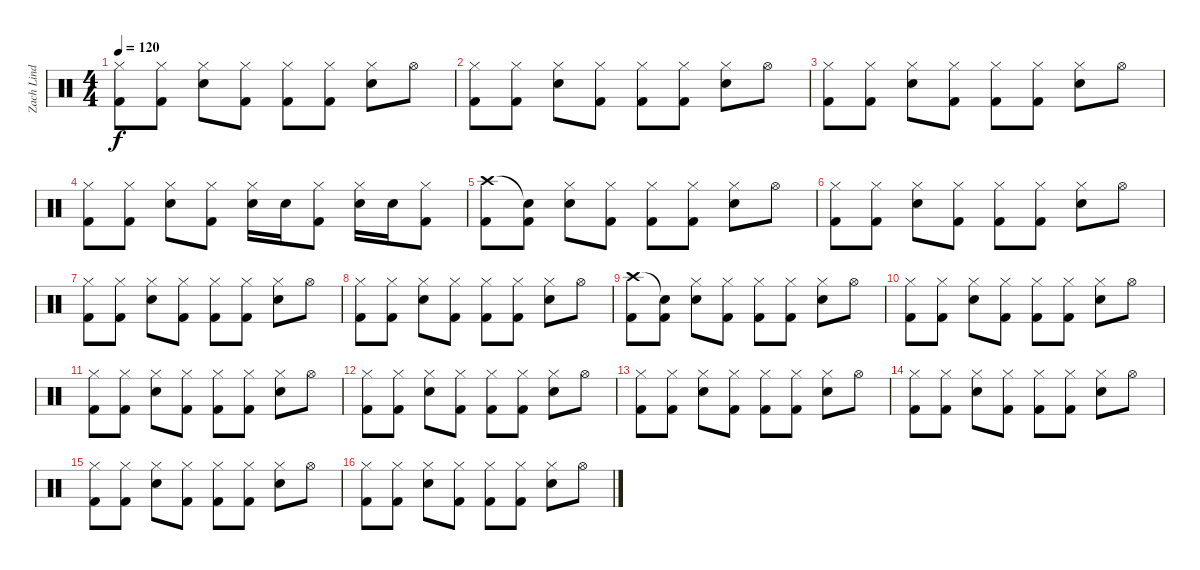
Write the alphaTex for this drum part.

\track ("Zach Lind (Drums)" "Zach Lind ") {instrument percussion}
\staff {score}
\articulation defaults
\ts (4 4)
\tempo 120
\clef neutral
\ks c
("Hi-Hat (closed)" "Kick (hit) 2").8{dy f} ("Hi-Hat (closed)" "Kick (hit) 2").8 ("Hi-Hat (closed)" "Electric Snare (hit)").8 ("Hi-Hat (closed)" "Kick (hit) 2").8 ("Hi-Hat (closed)" "Kick (hit) 2").8 ("Hi-Hat (closed)" "Kick (hit) 2").8 ("Hi-Hat (closed)" "Electric Snare (hit)").8 "Hi-Hat (open)".8 |
("Hi-Hat (closed)" "Kick (hit) 2").8 ("Hi-Hat (closed)" "Kick (hit) 2").8 ("Hi-Hat (closed)" "Electric Snare (hit)").8 ("Hi-Hat (closed)" "Kick (hit) 2").8 ("Hi-Hat (closed)" "Kick (hit) 2").8 ("Hi-Hat (closed)" "Kick (hit) 2").8 ("Hi-Hat (closed)" "Electric Snare (hit)").8 "Hi-Hat (open)".8 |
("Hi-Hat (closed)" "Kick (hit) 2").8 ("Hi-Hat (closed)" "Kick (hit) 2").8 ("Hi-Hat (closed)" "Electric Snare (hit)").8 ("Hi-Hat (closed)" "Kick (hit) 2").8 ("Hi-Hat (closed)" "Kick (hit) 2").8 ("Hi-Hat (closed)" "Kick (hit) 2").8 ("Hi-Hat (closed)" "Electric Snare (hit)").8 "Hi-Hat (open)".8 |
("Hi-Hat (closed)" "Kick (hit) 2").8 ("Hi-Hat (closed)" "Kick (hit) 2").8 ("Hi-Hat (closed)" "Electric Snare (hit)").8 ("Hi-Hat (closed)" "Kick (hit) 2").8 ("Hi-Hat (closed)" "Electric Snare (hit)").16 "Electric Snare (hit)".16 ("Hi-Hat (closed)" "Kick (hit) 2").8 ("Hi-Hat (closed)" "Electric Snare (hit)").16 "Electric Snare (hit)".16 ("Hi-Hat (closed)" "Kick (hit) 2").8 |
("Crash high (hit)" "Kick (hit) 2").8 ("Snare (hit)"{t} "Kick (hit) 2").8 ("Hi-Hat (closed)" "Electric Snare (hit)").8 ("Hi-Hat (closed)" "Kick (hit) 2").8 ("Hi-Hat (closed)" "Kick (hit) 2").8 ("Hi-Hat (closed)" "Kick (hit) 2").8 ("Hi-Hat (closed)" "Electric Snare (hit)").8 "Hi-Hat (open)".8 |
("Hi-Hat (closed)" "Kick (hit) 2").8 ("Hi-Hat (closed)" "Kick (hit) 2").8 ("Hi-Hat (closed)" "Electric Snare (hit)").8 ("Hi-Hat (closed)" "Kick (hit) 2").8 ("Hi-Hat (closed)" "Kick (hit) 2").8 ("Hi-Hat (closed)" "Kick (hit) 2").8 ("Hi-Hat (closed)" "Electric Snare (hit)").8 "Hi-Hat (open)".8 |
("Hi-Hat (closed)" "Kick (hit) 2").8 ("Hi-Hat (closed)" "Kick (hit) 2").8 ("Hi-Hat (closed)" "Electric Snare (hit)").8 ("Hi-Hat (closed)" "Kick (hit) 2").8 ("Hi-Hat (closed)" "Kick (hit) 2").8 ("Hi-Hat (closed)" "Kick (hit) 2").8 ("Hi-Hat (closed)" "Electric Snare (hit)").8 "Hi-Hat (open)".8 |
("Hi-Hat (closed)" "Kick (hit) 2").8 ("Hi-Hat (closed)" "Kick (hit) 2").8 ("Hi-Hat (closed)" "Electric Snare (hit)").8 ("Hi-Hat (closed)" "Kick (hit) 2").8 ("Hi-Hat (closed)" "Kick (hit) 2").8 ("Hi-Hat (closed)" "Kick (hit) 2").8 ("Hi-Hat (closed)" "Electric Snare (hit)").8 "Hi-Hat (open)".8 |
("Crash high (hit)" "Kick (hit) 2").8 ("Snare (hit)"{t} "Kick (hit) 2").8 ("Hi-Hat (closed)" "Electric Snare (hit)").8 ("Hi-Hat (closed)" "Kick (hit) 2").8 ("Hi-Hat (closed)" "Kick (hit) 2").8 ("Hi-Hat (closed)" "Kick (hit) 2").8 ("Hi-Hat (closed)" "Electric Snare (hit)").8 "Hi-Hat (open)".8 |
("Hi-Hat (closed)" "Kick (hit) 2").8 ("Hi-Hat (closed)" "Kick (hit) 2").8 ("Hi-Hat (closed)" "Electric Snare (hit)").8 ("Hi-Hat (closed)" "Kick (hit) 2").8 ("Hi-Hat (closed)" "Kick (hit) 2").8 ("Hi-Hat (closed)" "Kick (hit) 2").8 ("Hi-Hat (closed)" "Electric Snare (hit)").8 "Hi-Hat (open)".8 |
("Hi-Hat (closed)" "Kick (hit) 2").8 ("Hi-Hat (closed)" "Kick (hit) 2").8 ("Hi-Hat (closed)" "Electric Snare (hit)").8 ("Hi-Hat (closed)" "Kick (hit) 2").8 ("Hi-Hat (closed)" "Kick (hit) 2").8 ("Hi-Hat (closed)" "Kick (hit) 2").8 ("Hi-Hat (closed)" "Electric Snare (hit)").8 "Hi-Hat (open)".8 |
("Hi-Hat (closed)" "Kick (hit) 2").8 ("Hi-Hat (closed)" "Kick (hit) 2").8 ("Hi-Hat (closed)" "Electric Snare (hit)").8 ("Hi-Hat (closed)" "Kick (hit) 2").8 ("Hi-Hat (closed)" "Kick (hit) 2").8 ("Hi-Hat (closed)" "Kick (hit) 2").8 ("Hi-Hat (closed)" "Electric Snare (hit)").8 "Hi-Hat (open)".8 |
("Hi-Hat (closed)" "Kick (hit) 2").8 ("Hi-Hat (closed)" "Kick (hit) 2").8 ("Hi-Hat (closed)" "Electric Snare (hit)").8 ("Hi-Hat (closed)" "Kick (hit) 2").8 ("Hi-Hat (closed)" "Kick (hit) 2").8 ("Hi-Hat (closed)" "Kick (hit) 2").8 ("Hi-Hat (closed)" "Electric Snare (hit)").8 "Hi-Hat (open)".8 |
("Hi-Hat (closed)" "Kick (hit) 2").8 ("Hi-Hat (closed)" "Kick (hit) 2").8 ("Hi-Hat (closed)" "Electric Snare (hit)").8 ("Hi-Hat (closed)" "Kick (hit) 2").8 ("Hi-Hat (closed)" "Kick (hit) 2").8 ("Hi-Hat (closed)" "Kick (hit) 2").8 ("Hi-Hat (closed)" "Electric Snare (hit)").8 "Hi-Hat (open)".8 |
("Hi-Hat (closed)" "Kick (hit) 2").8 ("Hi-Hat (closed)" "Kick (hit) 2").8 ("Hi-Hat (closed)" "Electric Snare (hit)").8 ("Hi-Hat (closed)" "Kick (hit) 2").8 ("Hi-Hat (closed)" "Kick (hit) 2").8 ("Hi-Hat (closed)" "Kick (hit) 2").8 ("Hi-Hat (closed)" "Electric Snare (hit)").8 "Hi-Hat (open)".8 |
("Hi-Hat (closed)" "Kick (hit) 2").8 ("Hi-Hat (closed)" "Kick (hit) 2").8 ("Hi-Hat (closed)" "Electric Snare (hit)").8 ("Hi-Hat (closed)" "Kick (hit) 2").8 ("Hi-Hat (closed)" "Kick (hit) 2").8 ("Hi-Hat (closed)" "Kick (hit) 2").8 ("Hi-Hat (closed)" "Electric Snare (hit)").8 "Hi-Hat (open)".8
